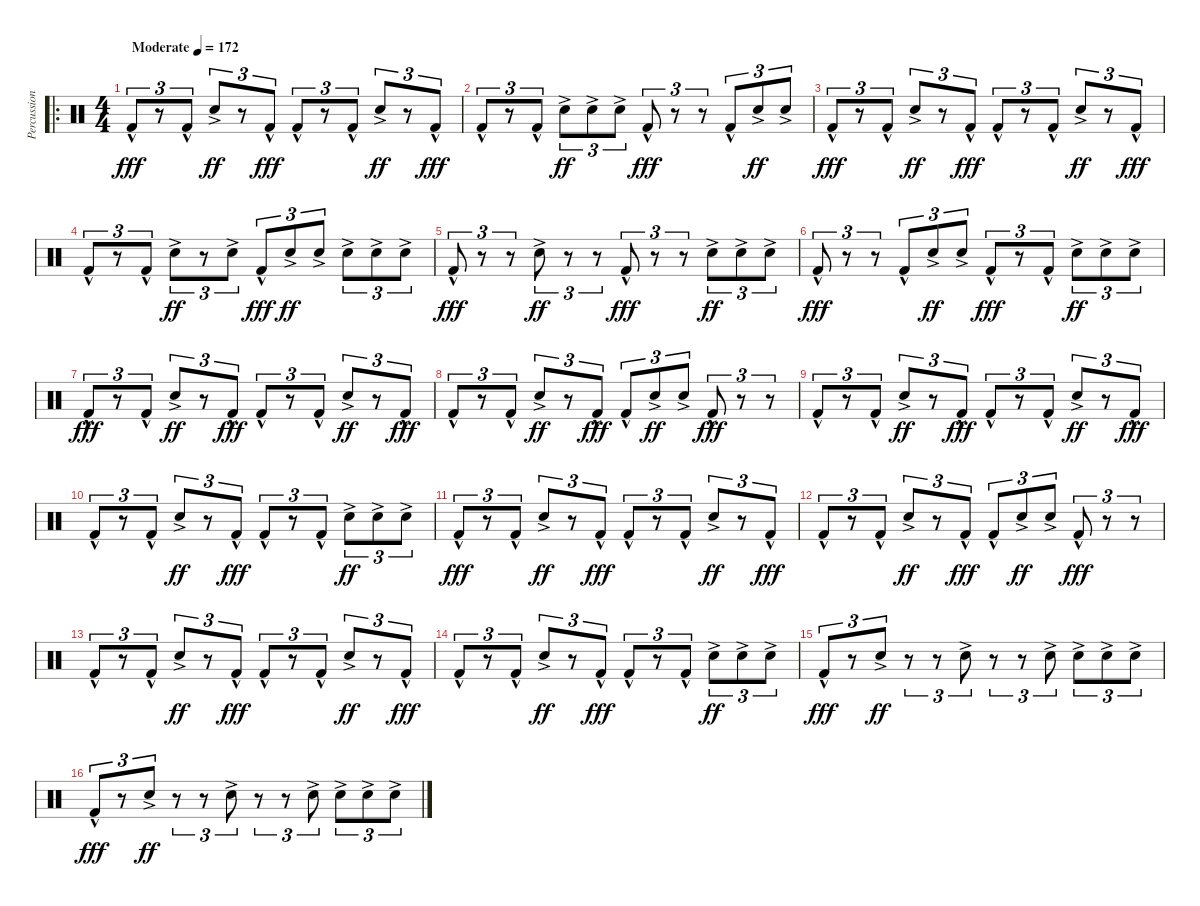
\track ("Percussion" "Percussion") {instrument percussion}
\staff {score}
\articulation defaults
\ro
\ts (4 4)
\tempo (172 "Moderate")
\clef neutral
\ks c "Kick (hit) 2"{hac}.8{tu (3 2) dy fff}
r.8{tu (3 2)} "Kick (hit) 2"{hac}.8{tu (3 2)} "Snare (hit) 2"{ac}.8{tu (3 2) dy ff} r.8{tu (3 2)} "Kick (hit) 2"{hac}.8{tu (3 2) dy fff} "Kick (hit) 2"{hac}.8{tu (3 2)} r.8{tu (3 2)} "Kick (hit) 2"{hac}.8{tu (3 2)} "Snare (hit) 2"{ac}.8{tu (3 2) dy ff} r.8{tu (3 2)} "Kick (hit) 2"{hac}.8{tu (3 2) dy fff} |
"Kick (hit) 2"{hac}.8{tu (3 2)} r.8{tu (3 2)} "Kick (hit) 2"{hac}.8{tu (3 2)} "Snare (hit) 2"{ac}.8{tu (3 2) dy ff} "Snare (hit) 2"{ac}.8{tu (3 2)} "Snare (hit) 2"{ac}.8{tu (3 2)} "Kick (hit) 2"{hac}.8{tu (3 2) dy fff} r.8{tu (3 2)} r.8{tu (3 2)} "Kick (hit) 2"{hac}.8{tu (3 2)} "Snare (hit) 2"{ac}.8{tu (3 2) dy ff} "Snare (hit) 2"{ac}.8{tu (3 2)} |
"Kick (hit) 2"{hac}.8{tu (3 2) dy fff} r.8{tu (3 2)} "Kick (hit) 2"{hac}.8{tu (3 2)} "Snare (hit) 2"{ac}.8{tu (3 2) dy ff} r.8{tu (3 2)} "Kick (hit) 2"{hac}.8{tu (3 2) dy fff} "Kick (hit) 2"{hac}.8{tu (3 2)} r.8{tu (3 2)} "Kick (hit) 2"{hac}.8{tu (3 2)} "Snare (hit) 2"{ac}.8{tu (3 2) dy ff} r.8{tu (3 2)} "Kick (hit) 2"{hac}.8{tu (3 2) dy fff} |
"Kick (hit) 2"{hac}.8{tu (3 2)} r.8{tu (3 2)} "Kick (hit) 2"{hac}.8{tu (3 2)} "Snare (hit) 2"{ac}.8{tu (3 2) dy ff} r.8{tu (3 2)} "Snare (hit) 2"{ac}.8{tu (3 2)} "Kick (hit) 2"{hac}.8{tu (3 2) dy fff} "Snare (hit) 2"{ac}.8{tu (3 2) dy ff} "Snare (hit) 2"{ac}.8{tu (3 2)} "Snare (hit) 2"{ac}.8{tu (3 2)} "Snare (hit) 2"{ac}.8{tu (3 2)} "Snare (hit) 2"{ac}.8{tu (3 2)} |
"Kick (hit) 2"{hac}.8{tu (3 2) dy fff} r.8{tu (3 2)} r.8{tu (3 2)} "Snare (hit) 2"{ac}.8{tu (3 2) dy ff} r.8{tu (3 2)} r.8{tu (3 2)} "Kick (hit) 2"{hac}.8{tu (3 2) dy fff} r.8{tu (3 2)} r.8{tu (3 2)} "Snare (hit) 2"{ac}.8{tu (3 2) dy ff} "Snare (hit) 2"{ac}.8{tu (3 2)} "Snare (hit) 2"{ac}.8{tu (3 2)} |
"Kick (hit) 2"{hac}.8{tu (3 2) dy fff} r.8{tu (3 2)} r.8{tu (3 2)} "Kick (hit) 2"{hac}.8{tu (3 2)} "Snare (hit) 2"{ac}.8{tu (3 2) dy ff} "Snare (hit) 2"{ac}.8{tu (3 2)} "Kick (hit) 2"{hac}.8{tu (3 2) dy fff} r.8{tu (3 2)} "Kick (hit) 2"{hac}.8{tu (3 2)} "Snare (hit) 2"{ac}.8{tu (3 2) dy ff} "Snare (hit) 2"{ac}.8{tu (3 2)} "Snare (hit) 2"{ac}.8{tu (3 2)} |
"Kick (hit) 2"{hac}.8{tu (3 2) dy fff} r.8{tu (3 2)} "Kick (hit) 2"{hac}.8{tu (3 2)} "Snare (hit) 2"{ac}.8{tu (3 2) dy ff} r.8{tu (3 2)} "Kick (hit) 2"{hac}.8{tu (3 2) dy fff} "Kick (hit) 2"{hac}.8{tu (3 2)} r.8{tu (3 2)} "Kick (hit) 2"{hac}.8{tu (3 2)} "Snare (hit) 2"{ac}.8{tu (3 2) dy ff} r.8{tu (3 2)} "Kick (hit) 2"{hac}.8{tu (3 2) dy fff} |
"Kick (hit) 2"{hac}.8{tu (3 2)} r.8{tu (3 2)} "Kick (hit) 2"{hac}.8{tu (3 2)} "Snare (hit) 2"{ac}.8{tu (3 2) dy ff} r.8{tu (3 2)} "Kick (hit) 2"{hac}.8{tu (3 2) dy fff} "Kick (hit) 2"{hac}.8{tu (3 2)} "Snare (hit) 2"{ac}.8{tu (3 2) dy ff} "Snare (hit) 2"{ac}.8{tu (3 2)} "Kick (hit) 2"{hac}.8{tu (3 2) dy fff} r.8{tu (3 2)} r.8{tu (3 2)} |
"Kick (hit) 2"{hac}.8{tu (3 2)} r.8{tu (3 2)} "Kick (hit) 2"{hac}.8{tu (3 2)} "Snare (hit) 2"{ac}.8{tu (3 2) dy ff} r.8{tu (3 2)} "Kick (hit) 2"{hac}.8{tu (3 2) dy fff} "Kick (hit) 2"{hac}.8{tu (3 2)} r.8{tu (3 2)} "Kick (hit) 2"{hac}.8{tu (3 2)} "Snare (hit) 2"{ac}.8{tu (3 2) dy ff} r.8{tu (3 2)} "Kick (hit) 2"{hac}.8{tu (3 2) dy fff} |
"Kick (hit) 2"{hac}.8{tu (3 2)} r.8{tu (3 2)} "Kick (hit) 2"{hac}.8{tu (3 2)} "Snare (hit) 2"{ac}.8{tu (3 2) dy ff} r.8{tu (3 2)} "Kick (hit) 2"{hac}.8{tu (3 2) dy fff} "Kick (hit) 2"{hac}.8{tu (3 2)} r.8{tu (3 2)} "Kick (hit) 2"{hac}.8{tu (3 2)} "Snare (hit) 2"{ac}.8{tu (3 2) dy ff} "Snare (hit) 2"{ac}.8{tu (3 2)} "Snare (hit) 2"{ac}.8{tu (3 2)} |
"Kick (hit) 2"{hac}.8{tu (3 2) dy fff} r.8{tu (3 2)} "Kick (hit) 2"{hac}.8{tu (3 2)} "Snare (hit) 2"{ac}.8{tu (3 2) dy ff} r.8{tu (3 2)} "Kick (hit) 2"{hac}.8{tu (3 2) dy fff} "Kick (hit) 2"{hac}.8{tu (3 2)} r.8{tu (3 2)} "Kick (hit) 2"{hac}.8{tu (3 2)} "Snare (hit) 2"{ac}.8{tu (3 2) dy ff} r.8{tu (3 2)} "Kick (hit) 2"{hac}.8{tu (3 2) dy fff} |
"Kick (hit) 2"{hac}.8{tu (3 2)} r.8{tu (3 2)} "Kick (hit) 2"{hac}.8{tu (3 2)} "Snare (hit) 2"{ac}.8{tu (3 2) dy ff} r.8{tu (3 2)} "Kick (hit) 2"{hac}.8{tu (3 2) dy fff} "Kick (hit) 2"{hac}.8{tu (3 2)} "Snare (hit) 2"{ac}.8{tu (3 2) dy ff} "Snare (hit) 2"{ac}.8{tu (3 2)} "Kick (hit) 2"{hac}.8{tu (3 2) dy fff} r.8{tu (3 2)} r.8{tu (3 2)} |
"Kick (hit) 2"{hac}.8{tu (3 2)} r.8{tu (3 2)} "Kick (hit) 2"{hac}.8{tu (3 2)} "Snare (hit) 2"{ac}.8{tu (3 2) dy ff} r.8{tu (3 2)} "Kick (hit) 2"{hac}.8{tu (3 2) dy fff} "Kick (hit) 2"{hac}.8{tu (3 2)} r.8{tu (3 2)} "Kick (hit) 2"{hac}.8{tu (3 2)} "Snare (hit) 2"{ac}.8{tu (3 2) dy ff} r.8{tu (3 2)} "Kick (hit) 2"{hac}.8{tu (3 2) dy fff} |
"Kick (hit) 2"{hac}.8{tu (3 2)} r.8{tu (3 2)} "Kick (hit) 2"{hac}.8{tu (3 2)} "Snare (hit) 2"{ac}.8{tu (3 2) dy ff} r.8{tu (3 2)} "Kick (hit) 2"{hac}.8{tu (3 2) dy fff} "Kick (hit) 2"{hac}.8{tu (3 2)} r.8{tu (3 2)} "Kick (hit) 2"{hac}.8{tu (3 2)} "Snare (hit) 2"{ac}.8{tu (3 2) dy ff} "Snare (hit) 2"{ac}.8{tu (3 2)} "Snare (hit) 2"{ac}.8{tu (3 2)} |
"Kick (hit) 2"{hac}.8{tu (3 2) dy fff} r.8{tu (3 2)} "Snare (hit) 2"{ac}.8{tu (3 2) dy ff} r.8{tu (3 2)} r.8{tu (3 2)} "Snare (hit) 2"{ac}.8{tu (3 2)} r.8{tu (3 2)} r.8{tu (3 2)} "Snare (hit) 2"{ac}.8{tu (3 2)} "Snare (hit) 2"{ac}.8{tu (3 2)} "Snare (hit) 2"{ac}.8{tu (3 2)} "Snare (hit) 2"{ac}.8{tu (3 2)} |
"Kick (hit) 2"{hac}.8{tu (3 2) dy fff} r.8{tu (3 2)} "Snare (hit) 2"{ac}.8{tu (3 2) dy ff} r.8{tu (3 2)} r.8{tu (3 2)} "Snare (hit) 2"{ac}.8{tu (3 2)} r.8{tu (3 2)} r.8{tu (3 2)} "Snare (hit) 2"{ac}.8{tu (3 2)} "Snare (hit) 2"{ac}.8{tu (3 2)} "Snare (hit) 2"{ac}.8{tu (3 2)} "Snare (hit) 2"{ac}.8{tu (3 2)}
